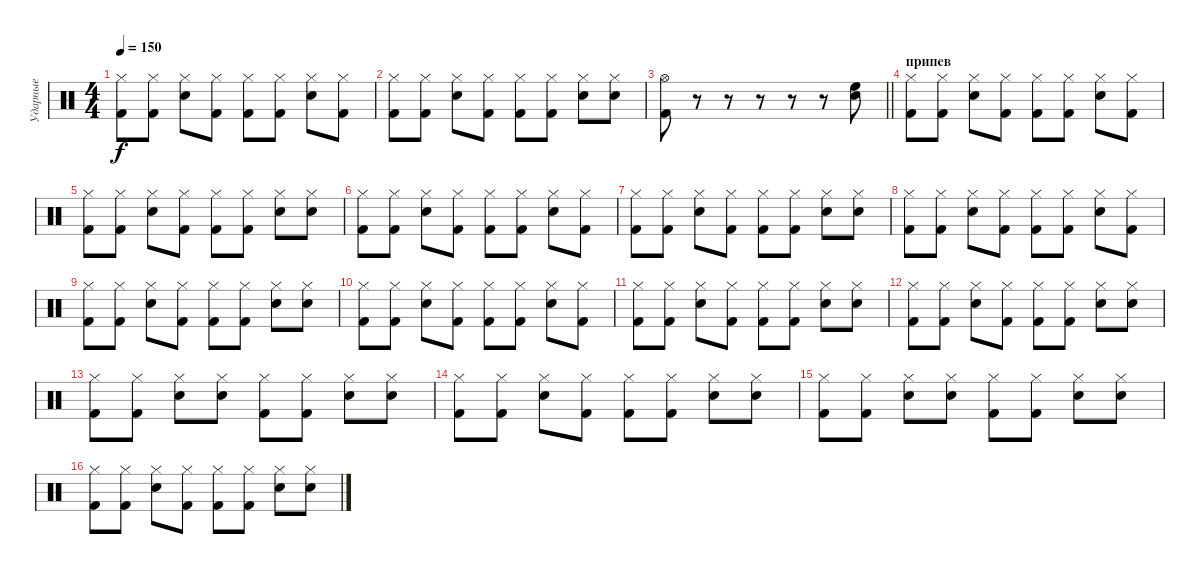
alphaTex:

\track ("Ударные" "Ударные") {instrument percussion}
\staff {score}
\articulation defaults
\ts (4 4)
\tempo 150
\clef neutral
\ks c
("Hi-Hat (closed)" "Kick (hit) 2").8{dy f} ("Hi-Hat (closed)" "Kick (hit) 2").8 ("Hi-Hat (closed)" "Snare (hit) 2").8 ("Hi-Hat (closed)" "Kick (hit) 2").8 ("Hi-Hat (closed)" "Kick (hit) 2").8 ("Hi-Hat (closed)" "Kick (hit) 2").8 ("Hi-Hat (closed)" "Snare (hit) 2").8 ("Hi-Hat (closed)" "Kick (hit) 2").8 |
("Hi-Hat (closed)" "Kick (hit) 2").8 ("Hi-Hat (closed)" "Kick (hit) 2").8 ("Hi-Hat (closed)" "Snare (hit) 2").8 ("Hi-Hat (closed)" "Kick (hit) 2").8 ("Hi-Hat (closed)" "Kick (hit) 2").8 ("Hi-Hat (closed)" "Kick (hit) 2").8 ("Hi-Hat (closed)" "Snare (hit) 2").8 ("Hi-Hat (closed)" "Snare (hit) 2").8 |
\barLineRight lightlight
("Hi-Hat (open)" "Kick (hit) 2").8 r.8 r.8 r.8 r.8 r.8 ("High Floor Tom (hit)" "Electric Snare (hit)").8 |
\section ("" "припев")
("Hi-Hat (closed)" "Kick (hit) 2").8 ("Hi-Hat (closed)" "Kick (hit) 2").8 ("Hi-Hat (closed)" "Snare (hit) 2").8 ("Hi-Hat (closed)" "Kick (hit) 2").8 ("Hi-Hat (closed)" "Kick (hit) 2").8 ("Hi-Hat (closed)" "Kick (hit) 2").8 ("Hi-Hat (closed)" "Snare (hit) 2").8 ("Hi-Hat (closed)" "Kick (hit) 2").8 |
("Hi-Hat (closed)" "Kick (hit) 2").8 ("Hi-Hat (closed)" "Kick (hit) 2").8 ("Hi-Hat (closed)" "Snare (hit) 2").8 ("Hi-Hat (closed)" "Kick (hit) 2").8 ("Hi-Hat (closed)" "Kick (hit) 2").8 ("Hi-Hat (closed)" "Kick (hit) 2").8 ("Hi-Hat (closed)" "Snare (hit) 2").8 ("Hi-Hat (closed)" "Snare (hit) 2").8 |
("Hi-Hat (closed)" "Kick (hit) 2").8 ("Hi-Hat (closed)" "Kick (hit) 2").8 ("Hi-Hat (closed)" "Snare (hit) 2").8 ("Hi-Hat (closed)" "Kick (hit) 2").8 ("Hi-Hat (closed)" "Kick (hit) 2").8 ("Hi-Hat (closed)" "Kick (hit) 2").8 ("Hi-Hat (closed)" "Snare (hit) 2").8 ("Hi-Hat (closed)" "Kick (hit) 2").8 |
("Hi-Hat (closed)" "Kick (hit) 2").8 ("Hi-Hat (closed)" "Kick (hit) 2").8 ("Hi-Hat (closed)" "Snare (hit) 2").8 ("Hi-Hat (closed)" "Kick (hit) 2").8 ("Hi-Hat (closed)" "Kick (hit) 2").8 ("Hi-Hat (closed)" "Kick (hit) 2").8 ("Hi-Hat (closed)" "Snare (hit) 2").8 ("Hi-Hat (closed)" "Snare (hit) 2").8 |
("Hi-Hat (closed)" "Kick (hit) 2").8 ("Hi-Hat (closed)" "Kick (hit) 2").8 ("Hi-Hat (closed)" "Snare (hit) 2").8 ("Hi-Hat (closed)" "Kick (hit) 2").8 ("Hi-Hat (closed)" "Kick (hit) 2").8 ("Hi-Hat (closed)" "Kick (hit) 2").8 ("Hi-Hat (closed)" "Snare (hit) 2").8 ("Hi-Hat (closed)" "Kick (hit) 2").8 |
("Hi-Hat (closed)" "Kick (hit) 2").8 ("Hi-Hat (closed)" "Kick (hit) 2").8 ("Hi-Hat (closed)" "Snare (hit) 2").8 ("Hi-Hat (closed)" "Kick (hit) 2").8 ("Hi-Hat (closed)" "Kick (hit) 2").8 ("Hi-Hat (closed)" "Kick (hit) 2").8 ("Hi-Hat (closed)" "Snare (hit) 2").8 ("Hi-Hat (closed)" "Snare (hit) 2").8 |
("Hi-Hat (closed)" "Kick (hit) 2").8 ("Hi-Hat (closed)" "Kick (hit) 2").8 ("Hi-Hat (closed)" "Snare (hit) 2").8 ("Hi-Hat (closed)" "Kick (hit) 2").8 ("Hi-Hat (closed)" "Kick (hit) 2").8 ("Hi-Hat (closed)" "Kick (hit) 2").8 ("Hi-Hat (closed)" "Snare (hit) 2").8 ("Hi-Hat (closed)" "Kick (hit) 2").8 |
("Hi-Hat (closed)" "Kick (hit) 2").8 ("Hi-Hat (closed)" "Kick (hit) 2").8 ("Hi-Hat (closed)" "Snare (hit) 2").8 ("Hi-Hat (closed)" "Kick (hit) 2").8 ("Hi-Hat (closed)" "Kick (hit) 2").8 ("Hi-Hat (closed)" "Kick (hit) 2").8 ("Hi-Hat (closed)" "Snare (hit) 2").8 ("Hi-Hat (closed)" "Snare (hit) 2").8 |
("Hi-Hat (closed)" "Kick (hit) 2").8 ("Hi-Hat (closed)" "Kick (hit) 2").8 ("Hi-Hat (closed)" "Snare (hit) 2").8 ("Hi-Hat (closed)" "Kick (hit) 2").8 ("Hi-Hat (closed)" "Kick (hit) 2").8 ("Hi-Hat (closed)" "Kick (hit) 2").8 ("Hi-Hat (closed)" "Snare (hit) 2").8 ("Hi-Hat (closed)" "Snare (hit) 2").8 |
("Hi-Hat (closed)" "Kick (hit) 2").8 ("Hi-Hat (closed)" "Kick (hit) 2").8 ("Hi-Hat (closed)" "Snare (hit) 2").8 ("Hi-Hat (closed)" "Snare (hit) 2").8 ("Hi-Hat (closed)" "Kick (hit) 2").8 ("Hi-Hat (closed)" "Kick (hit) 2").8 ("Hi-Hat (closed)" "Snare (hit) 2").8 ("Hi-Hat (closed)" "Snare (hit) 2").8 |
("Hi-Hat (closed)" "Kick (hit) 2").8 ("Hi-Hat (closed)" "Kick (hit) 2").8 ("Hi-Hat (closed)" "Snare (hit) 2").8 ("Hi-Hat (closed)" "Kick (hit) 2").8 ("Hi-Hat (closed)" "Kick (hit) 2").8 ("Hi-Hat (closed)" "Kick (hit) 2").8 ("Hi-Hat (closed)" "Snare (hit) 2").8 ("Hi-Hat (closed)" "Snare (hit) 2").8 |
("Hi-Hat (closed)" "Kick (hit) 2").8 ("Hi-Hat (closed)" "Kick (hit) 2").8 ("Hi-Hat (closed)" "Snare (hit) 2").8 ("Hi-Hat (closed)" "Snare (hit) 2").8 ("Hi-Hat (closed)" "Kick (hit) 2").8 ("Hi-Hat (closed)" "Kick (hit) 2").8 ("Hi-Hat (closed)" "Snare (hit) 2").8 ("Hi-Hat (closed)" "Snare (hit) 2").8 |
("Hi-Hat (closed)" "Kick (hit) 2").8 ("Hi-Hat (closed)" "Kick (hit) 2").8 ("Hi-Hat (closed)" "Snare (hit) 2").8 ("Hi-Hat (closed)" "Kick (hit) 2").8 ("Hi-Hat (closed)" "Kick (hit) 2").8 ("Hi-Hat (closed)" "Kick (hit) 2").8 ("Hi-Hat (closed)" "Snare (hit) 2").8 ("Hi-Hat (closed)" "Snare (hit) 2").8
